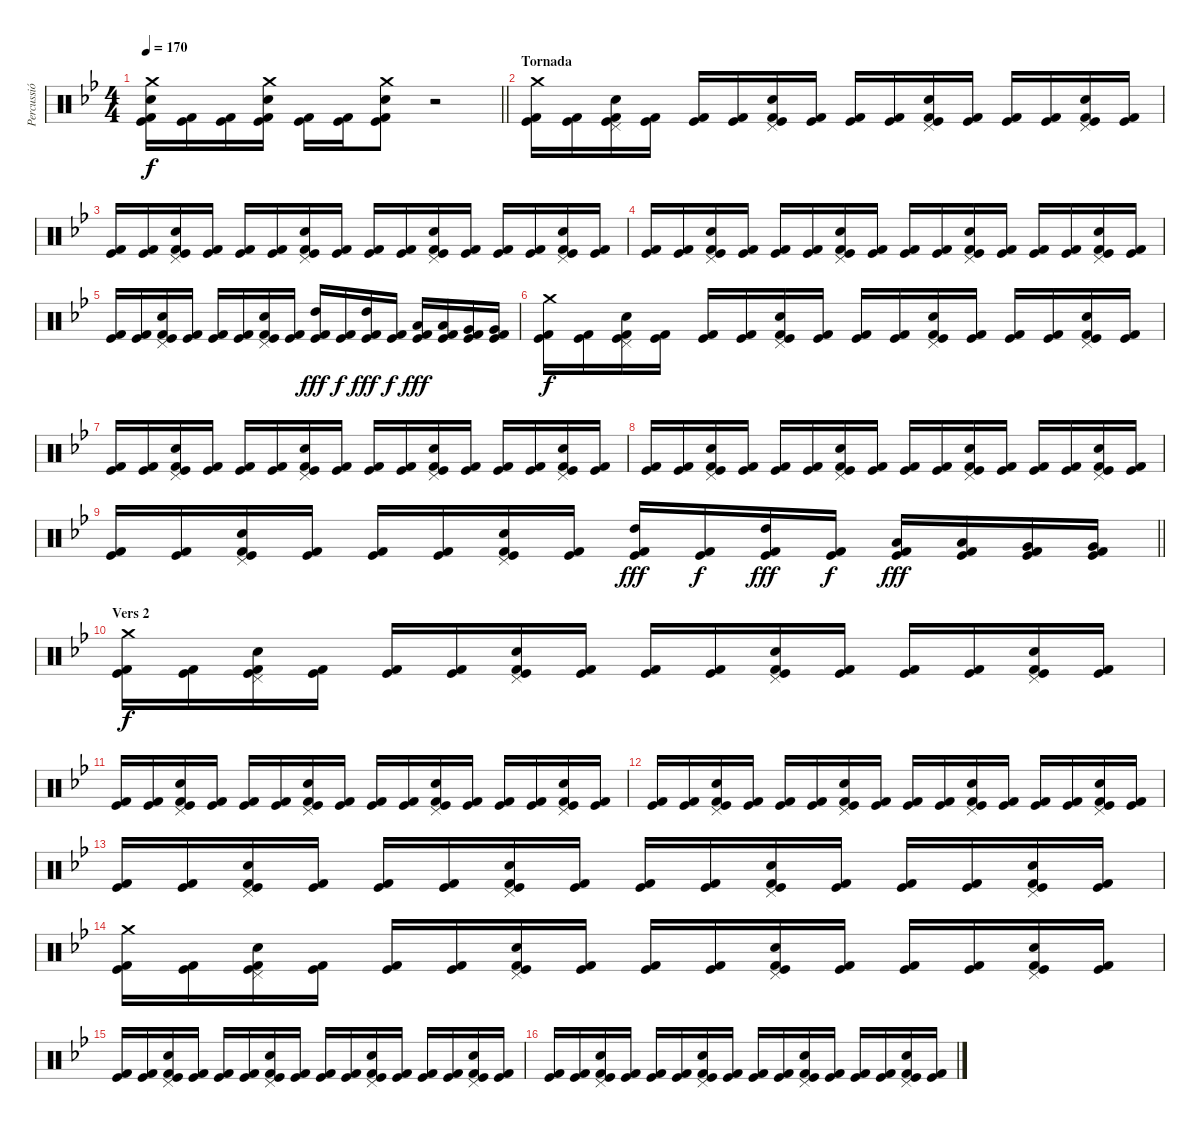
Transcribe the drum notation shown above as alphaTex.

\track ("Percussió" "Percussió") {instrument percussion}
\staff {score}
\articulation defaults
\ts (4 4)
\tempo 170
\clef neutral
\barLineRight lightlight
\ks gminor
("Crash medium (hit)" "Electric Snare (hit)" "Kick (hit)" "Kick (hit) 2").16{dy f} ("Kick (hit)" "Kick (hit) 2").16 ("Kick (hit)" "Kick (hit) 2").16 ("Crash medium (hit)" "Electric Snare (hit)" "Kick (hit)" "Kick (hit) 2").16 ("Kick (hit)" "Kick (hit) 2").16 ("Kick (hit)" "Kick (hit) 2").16 ("Crash medium (hit)" "Electric Snare (hit)" "Kick (hit)" "Kick (hit) 2").8 r.2 |
\section ("" "Tornada")
("Crash medium (hit)" "Kick (hit)" "Kick (hit) 2").16 ("Kick (hit)" "Kick (hit) 2").16 ("Pedal Hi-Hat (hit)" "Electric Snare (hit)" "Kick (hit)" "Kick (hit) 2").16 ("Kick (hit)" "Kick (hit) 2").16 ("Kick (hit)" "Kick (hit) 2").16 ("Kick (hit)" "Kick (hit) 2").16 ("Pedal Hi-Hat (hit)" "Electric Snare (hit)" "Kick (hit)" "Kick (hit) 2").16 ("Kick (hit)" "Kick (hit) 2").16 ("Kick (hit)" "Kick (hit) 2").16 ("Kick (hit)" "Kick (hit) 2").16 ("Pedal Hi-Hat (hit)" "Electric Snare (hit)" "Kick (hit)" "Kick (hit) 2").16 ("Kick (hit)" "Kick (hit) 2").16 ("Kick (hit)" "Kick (hit) 2").16 ("Kick (hit)" "Kick (hit) 2").16 ("Pedal Hi-Hat (hit)" "Electric Snare (hit)" "Kick (hit)" "Kick (hit) 2").16 ("Kick (hit)" "Kick (hit) 2").16 |
("Kick (hit)" "Kick (hit) 2").16 ("Kick (hit)" "Kick (hit) 2").16 ("Pedal Hi-Hat (hit)" "Electric Snare (hit)" "Kick (hit)" "Kick (hit) 2").16 ("Kick (hit)" "Kick (hit) 2").16 ("Kick (hit)" "Kick (hit) 2").16 ("Kick (hit)" "Kick (hit) 2").16 ("Pedal Hi-Hat (hit)" "Electric Snare (hit)" "Kick (hit)" "Kick (hit) 2").16 ("Kick (hit)" "Kick (hit) 2").16 ("Kick (hit)" "Kick (hit) 2").16 ("Kick (hit)" "Kick (hit) 2").16 ("Pedal Hi-Hat (hit)" "Electric Snare (hit)" "Kick (hit)" "Kick (hit) 2").16 ("Kick (hit)" "Kick (hit) 2").16 ("Kick (hit)" "Kick (hit) 2").16 ("Kick (hit)" "Kick (hit) 2").16 ("Pedal Hi-Hat (hit)" "Electric Snare (hit)" "Kick (hit)" "Kick (hit) 2").16 ("Kick (hit)" "Kick (hit) 2").16 |
("Kick (hit)" "Kick (hit) 2").16 ("Kick (hit)" "Kick (hit) 2").16 ("Pedal Hi-Hat (hit)" "Electric Snare (hit)" "Kick (hit)" "Kick (hit) 2").16 ("Kick (hit)" "Kick (hit) 2").16 ("Kick (hit)" "Kick (hit) 2").16 ("Kick (hit)" "Kick (hit) 2").16 ("Pedal Hi-Hat (hit)" "Electric Snare (hit)" "Kick (hit)" "Kick (hit) 2").16 ("Kick (hit)" "Kick (hit) 2").16 ("Kick (hit)" "Kick (hit) 2").16 ("Kick (hit)" "Kick (hit) 2").16 ("Pedal Hi-Hat (hit)" "Electric Snare (hit)" "Kick (hit)" "Kick (hit) 2").16 ("Kick (hit)" "Kick (hit) 2").16 ("Kick (hit)" "Kick (hit) 2").16 ("Kick (hit)" "Kick (hit) 2").16 ("Pedal Hi-Hat (hit)" "Electric Snare (hit)" "Kick (hit)" "Kick (hit) 2").16 ("Kick (hit)" "Kick (hit) 2").16 |
("Kick (hit)" "Kick (hit) 2").16 ("Kick (hit)" "Kick (hit) 2").16 ("Pedal Hi-Hat (hit)" "Electric Snare (hit)" "Kick (hit)" "Kick (hit) 2").16 ("Kick (hit)" "Kick (hit) 2").16 ("Kick (hit)" "Kick (hit) 2").16 ("Kick (hit)" "Kick (hit) 2").16 ("Pedal Hi-Hat (hit)" "Electric Snare (hit)" "Kick (hit)" "Kick (hit) 2").16 ("Kick (hit)" "Kick (hit) 2").16 ("High Tom (hit)" "Kick (hit)" "Kick (hit) 2").16{dy fff} ("Kick (hit)" "Kick (hit) 2").16{dy f} ("High Tom (hit)" "Kick (hit)" "Kick (hit) 2").16{dy fff} ("Kick (hit)" "Kick (hit) 2").16{dy f} ("Low Tom (hit)" "Kick (hit)" "Kick (hit) 2").16{dy fff} ("Low Tom (hit)" "Kick (hit)" "Kick (hit) 2").16 ("Very Low Tom (hit)" "Kick (hit)" "Kick (hit) 2").16 ("Very Low Tom (hit)" "Kick (hit)" "Kick (hit) 2").16 |
("Crash medium (hit)" "Kick (hit)" "Kick (hit) 2").16{dy f} ("Kick (hit)" "Kick (hit) 2").16 ("Pedal Hi-Hat (hit)" "Electric Snare (hit)" "Kick (hit)" "Kick (hit) 2").16 ("Kick (hit)" "Kick (hit) 2").16 ("Kick (hit)" "Kick (hit) 2").16 ("Kick (hit)" "Kick (hit) 2").16 ("Pedal Hi-Hat (hit)" "Electric Snare (hit)" "Kick (hit)" "Kick (hit) 2").16 ("Kick (hit)" "Kick (hit) 2").16 ("Kick (hit)" "Kick (hit) 2").16 ("Kick (hit)" "Kick (hit) 2").16 ("Pedal Hi-Hat (hit)" "Electric Snare (hit)" "Kick (hit)" "Kick (hit) 2").16 ("Kick (hit)" "Kick (hit) 2").16 ("Kick (hit)" "Kick (hit) 2").16 ("Kick (hit)" "Kick (hit) 2").16 ("Pedal Hi-Hat (hit)" "Electric Snare (hit)" "Kick (hit)" "Kick (hit) 2").16 ("Kick (hit)" "Kick (hit) 2").16 |
("Kick (hit)" "Kick (hit) 2").16 ("Kick (hit)" "Kick (hit) 2").16 ("Pedal Hi-Hat (hit)" "Electric Snare (hit)" "Kick (hit)" "Kick (hit) 2").16 ("Kick (hit)" "Kick (hit) 2").16 ("Kick (hit)" "Kick (hit) 2").16 ("Kick (hit)" "Kick (hit) 2").16 ("Pedal Hi-Hat (hit)" "Electric Snare (hit)" "Kick (hit)" "Kick (hit) 2").16 ("Kick (hit)" "Kick (hit) 2").16 ("Kick (hit)" "Kick (hit) 2").16 ("Kick (hit)" "Kick (hit) 2").16 ("Pedal Hi-Hat (hit)" "Electric Snare (hit)" "Kick (hit)" "Kick (hit) 2").16 ("Kick (hit)" "Kick (hit) 2").16 ("Kick (hit)" "Kick (hit) 2").16 ("Kick (hit)" "Kick (hit) 2").16 ("Pedal Hi-Hat (hit)" "Electric Snare (hit)" "Kick (hit)" "Kick (hit) 2").16 ("Kick (hit)" "Kick (hit) 2").16 |
("Kick (hit)" "Kick (hit) 2").16 ("Kick (hit)" "Kick (hit) 2").16 ("Pedal Hi-Hat (hit)" "Electric Snare (hit)" "Kick (hit)" "Kick (hit) 2").16 ("Kick (hit)" "Kick (hit) 2").16 ("Kick (hit)" "Kick (hit) 2").16 ("Kick (hit)" "Kick (hit) 2").16 ("Pedal Hi-Hat (hit)" "Electric Snare (hit)" "Kick (hit)" "Kick (hit) 2").16 ("Kick (hit)" "Kick (hit) 2").16 ("Kick (hit)" "Kick (hit) 2").16 ("Kick (hit)" "Kick (hit) 2").16 ("Pedal Hi-Hat (hit)" "Electric Snare (hit)" "Kick (hit)" "Kick (hit) 2").16 ("Kick (hit)" "Kick (hit) 2").16 ("Kick (hit)" "Kick (hit) 2").16 ("Kick (hit)" "Kick (hit) 2").16 ("Pedal Hi-Hat (hit)" "Electric Snare (hit)" "Kick (hit)" "Kick (hit) 2").16 ("Kick (hit)" "Kick (hit) 2").16 |
\barLineRight lightlight
("Kick (hit)" "Kick (hit) 2").16 ("Kick (hit)" "Kick (hit) 2").16 ("Pedal Hi-Hat (hit)" "Electric Snare (hit)" "Kick (hit)" "Kick (hit) 2").16 ("Kick (hit)" "Kick (hit) 2").16 ("Kick (hit)" "Kick (hit) 2").16 ("Kick (hit)" "Kick (hit) 2").16 ("Pedal Hi-Hat (hit)" "Electric Snare (hit)" "Kick (hit)" "Kick (hit) 2").16 ("Kick (hit)" "Kick (hit) 2").16 ("High Tom (hit)" "Kick (hit)" "Kick (hit) 2").16{dy fff} ("Kick (hit)" "Kick (hit) 2").16{dy f} ("High Tom (hit)" "Kick (hit)" "Kick (hit) 2").16{dy fff} ("Kick (hit)" "Kick (hit) 2").16{dy f} ("Low Tom (hit)" "Kick (hit)" "Kick (hit) 2").16{dy fff} ("Low Tom (hit)" "Kick (hit)" "Kick (hit) 2").16 ("Very Low Tom (hit)" "Kick (hit)" "Kick (hit) 2").16 ("Very Low Tom (hit)" "Kick (hit)" "Kick (hit) 2").16 |
\section ("" "Vers 2")
("Crash medium (hit)" "Kick (hit)" "Kick (hit) 2").16{dy f} ("Kick (hit)" "Kick (hit) 2").16 ("Pedal Hi-Hat (hit)" "Electric Snare (hit)" "Kick (hit)" "Kick (hit) 2").16 ("Kick (hit)" "Kick (hit) 2").16 ("Kick (hit)" "Kick (hit) 2").16 ("Kick (hit)" "Kick (hit) 2").16 ("Pedal Hi-Hat (hit)" "Electric Snare (hit)" "Kick (hit)" "Kick (hit) 2").16 ("Kick (hit)" "Kick (hit) 2").16 ("Kick (hit)" "Kick (hit) 2").16 ("Kick (hit)" "Kick (hit) 2").16 ("Pedal Hi-Hat (hit)" "Electric Snare (hit)" "Kick (hit)" "Kick (hit) 2").16 ("Kick (hit)" "Kick (hit) 2").16 ("Kick (hit)" "Kick (hit) 2").16 ("Kick (hit)" "Kick (hit) 2").16 ("Pedal Hi-Hat (hit)" "Electric Snare (hit)" "Kick (hit)" "Kick (hit) 2").16 ("Kick (hit)" "Kick (hit) 2").16 |
("Kick (hit)" "Kick (hit) 2").16 ("Kick (hit)" "Kick (hit) 2").16 ("Pedal Hi-Hat (hit)" "Electric Snare (hit)" "Kick (hit)" "Kick (hit) 2").16 ("Kick (hit)" "Kick (hit) 2").16 ("Kick (hit)" "Kick (hit) 2").16 ("Kick (hit)" "Kick (hit) 2").16 ("Pedal Hi-Hat (hit)" "Electric Snare (hit)" "Kick (hit)" "Kick (hit) 2").16 ("Kick (hit)" "Kick (hit) 2").16 ("Kick (hit)" "Kick (hit) 2").16 ("Kick (hit)" "Kick (hit) 2").16 ("Pedal Hi-Hat (hit)" "Electric Snare (hit)" "Kick (hit)" "Kick (hit) 2").16 ("Kick (hit)" "Kick (hit) 2").16 ("Kick (hit)" "Kick (hit) 2").16 ("Kick (hit)" "Kick (hit) 2").16 ("Pedal Hi-Hat (hit)" "Electric Snare (hit)" "Kick (hit)" "Kick (hit) 2").16 ("Kick (hit)" "Kick (hit) 2").16 |
("Kick (hit)" "Kick (hit) 2").16 ("Kick (hit)" "Kick (hit) 2").16 ("Pedal Hi-Hat (hit)" "Electric Snare (hit)" "Kick (hit)" "Kick (hit) 2").16 ("Kick (hit)" "Kick (hit) 2").16 ("Kick (hit)" "Kick (hit) 2").16 ("Kick (hit)" "Kick (hit) 2").16 ("Pedal Hi-Hat (hit)" "Electric Snare (hit)" "Kick (hit)" "Kick (hit) 2").16 ("Kick (hit)" "Kick (hit) 2").16 ("Kick (hit)" "Kick (hit) 2").16 ("Kick (hit)" "Kick (hit) 2").16 ("Pedal Hi-Hat (hit)" "Electric Snare (hit)" "Kick (hit)" "Kick (hit) 2").16 ("Kick (hit)" "Kick (hit) 2").16 ("Kick (hit)" "Kick (hit) 2").16 ("Kick (hit)" "Kick (hit) 2").16 ("Pedal Hi-Hat (hit)" "Electric Snare (hit)" "Kick (hit)" "Kick (hit) 2").16 ("Kick (hit)" "Kick (hit) 2").16 |
("Kick (hit)" "Kick (hit) 2").16 ("Kick (hit)" "Kick (hit) 2").16 ("Pedal Hi-Hat (hit)" "Electric Snare (hit)" "Kick (hit)" "Kick (hit) 2").16 ("Kick (hit)" "Kick (hit) 2").16 ("Kick (hit)" "Kick (hit) 2").16 ("Kick (hit)" "Kick (hit) 2").16 ("Pedal Hi-Hat (hit)" "Electric Snare (hit)" "Kick (hit)" "Kick (hit) 2").16 ("Kick (hit)" "Kick (hit) 2").16 ("Kick (hit)" "Kick (hit) 2").16 ("Kick (hit)" "Kick (hit) 2").16 ("Pedal Hi-Hat (hit)" "Electric Snare (hit)" "Kick (hit)" "Kick (hit) 2").16 ("Kick (hit)" "Kick (hit) 2").16 ("Kick (hit)" "Kick (hit) 2").16 ("Kick (hit)" "Kick (hit) 2").16 ("Pedal Hi-Hat (hit)" "Electric Snare (hit)" "Kick (hit)" "Kick (hit) 2").16 ("Kick (hit)" "Kick (hit) 2").16 |
("Crash medium (hit)" "Kick (hit)" "Kick (hit) 2").16 ("Kick (hit)" "Kick (hit) 2").16 ("Pedal Hi-Hat (hit)" "Electric Snare (hit)" "Kick (hit)" "Kick (hit) 2").16 ("Kick (hit)" "Kick (hit) 2").16 ("Kick (hit)" "Kick (hit) 2").16 ("Kick (hit)" "Kick (hit) 2").16 ("Pedal Hi-Hat (hit)" "Electric Snare (hit)" "Kick (hit)" "Kick (hit) 2").16 ("Kick (hit)" "Kick (hit) 2").16 ("Kick (hit)" "Kick (hit) 2").16 ("Kick (hit)" "Kick (hit) 2").16 ("Pedal Hi-Hat (hit)" "Electric Snare (hit)" "Kick (hit)" "Kick (hit) 2").16 ("Kick (hit)" "Kick (hit) 2").16 ("Kick (hit)" "Kick (hit) 2").16 ("Kick (hit)" "Kick (hit) 2").16 ("Pedal Hi-Hat (hit)" "Electric Snare (hit)" "Kick (hit)" "Kick (hit) 2").16 ("Kick (hit)" "Kick (hit) 2").16 |
("Kick (hit)" "Kick (hit) 2").16 ("Kick (hit)" "Kick (hit) 2").16 ("Pedal Hi-Hat (hit)" "Electric Snare (hit)" "Kick (hit)" "Kick (hit) 2").16 ("Kick (hit)" "Kick (hit) 2").16 ("Kick (hit)" "Kick (hit) 2").16 ("Kick (hit)" "Kick (hit) 2").16 ("Pedal Hi-Hat (hit)" "Electric Snare (hit)" "Kick (hit)" "Kick (hit) 2").16 ("Kick (hit)" "Kick (hit) 2").16 ("Kick (hit)" "Kick (hit) 2").16 ("Kick (hit)" "Kick (hit) 2").16 ("Pedal Hi-Hat (hit)" "Electric Snare (hit)" "Kick (hit)" "Kick (hit) 2").16 ("Kick (hit)" "Kick (hit) 2").16 ("Kick (hit)" "Kick (hit) 2").16 ("Kick (hit)" "Kick (hit) 2").16 ("Pedal Hi-Hat (hit)" "Electric Snare (hit)" "Kick (hit)" "Kick (hit) 2").16 ("Kick (hit)" "Kick (hit) 2").16 |
("Kick (hit)" "Kick (hit) 2").16 ("Kick (hit)" "Kick (hit) 2").16 ("Pedal Hi-Hat (hit)" "Electric Snare (hit)" "Kick (hit)" "Kick (hit) 2").16 ("Kick (hit)" "Kick (hit) 2").16 ("Kick (hit)" "Kick (hit) 2").16 ("Kick (hit)" "Kick (hit) 2").16 ("Pedal Hi-Hat (hit)" "Electric Snare (hit)" "Kick (hit)" "Kick (hit) 2").16 ("Kick (hit)" "Kick (hit) 2").16 ("Kick (hit)" "Kick (hit) 2").16 ("Kick (hit)" "Kick (hit) 2").16 ("Pedal Hi-Hat (hit)" "Electric Snare (hit)" "Kick (hit)" "Kick (hit) 2").16 ("Kick (hit)" "Kick (hit) 2").16 ("Kick (hit)" "Kick (hit) 2").16 ("Kick (hit)" "Kick (hit) 2").16 ("Pedal Hi-Hat (hit)" "Electric Snare (hit)" "Kick (hit)" "Kick (hit) 2").16 ("Kick (hit)" "Kick (hit) 2").16
